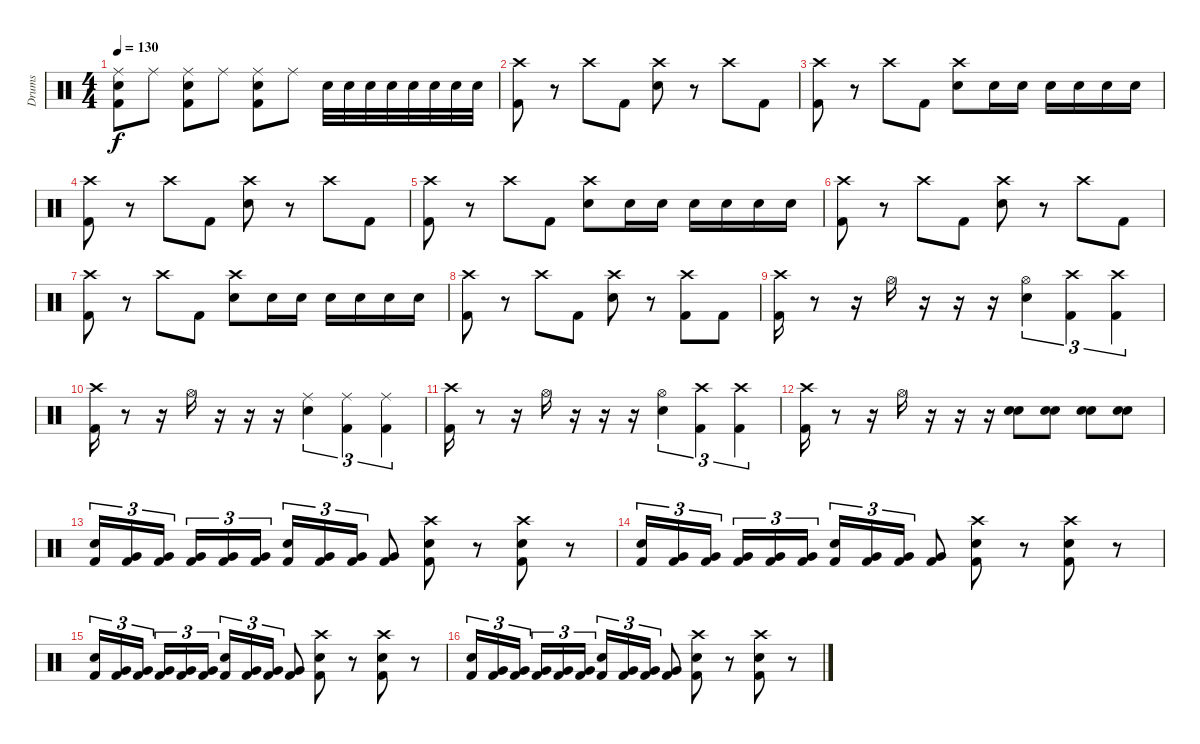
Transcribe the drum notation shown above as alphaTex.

\track ("Drums" "Drums") {instrument percussion}
\staff {score}
\articulation defaults
\ts (4 4)
\tempo 130
\clef neutral
\ks c
("Ride (middle)" "Electric Snare (hit)" "Kick (hit) 2").8{dy f} "Ride (middle)".8 ("Ride (middle)" "Electric Snare (hit)" "Kick (hit) 2").8 "Ride (middle)".8 ("Ride (middle)" "Electric Snare (hit)" "Kick (hit) 2").8 "Ride (middle)".8 "Electric Snare (hit)".32 "Electric Snare (hit)".32 "Electric Snare (hit)".32 "Electric Snare (hit)".32 "Electric Snare (hit)".32 "Electric Snare (hit)".32 "Electric Snare (hit)".32 "Electric Snare (hit)".32 |
("Crash high (hit)" "Kick (hit) 2").8 r.8 "Crash high (hit)".8 "Kick (hit) 2".8 ("Crash high (hit)" "Electric Snare (hit)").8 r.8 "Crash high (hit)".8 "Kick (hit) 2".8 |
("Crash high (hit)" "Kick (hit) 2").8 r.8 "Crash high (hit)".8 "Kick (hit) 2".8 ("Crash high (hit)" "Electric Snare (hit)").8 "Electric Snare (hit)".16 "Electric Snare (hit)".16 "Electric Snare (hit)".16 "Electric Snare (hit)".16 "Electric Snare (hit)".16 "Electric Snare (hit)".16 |
("Crash high (hit)" "Kick (hit) 2").8 r.8 "Crash high (hit)".8 "Kick (hit) 2".8 ("Crash high (hit)" "Electric Snare (hit)").8 r.8 "Crash high (hit)".8 "Kick (hit) 2".8 |
("Crash high (hit)" "Kick (hit) 2").8 r.8 "Crash high (hit)".8 "Kick (hit) 2".8 ("Crash high (hit)" "Electric Snare (hit)").8 "Electric Snare (hit)".16 "Electric Snare (hit)".16 "Electric Snare (hit)".16 "Electric Snare (hit)".16 "Electric Snare (hit)".16 "Electric Snare (hit)".16 |
("Crash high (hit)" "Kick (hit) 2").8 r.8 "Crash high (hit)".8 "Kick (hit) 2".8 ("Crash high (hit)" "Electric Snare (hit)").8 r.8 "Crash high (hit)".8 "Kick (hit) 2".8 |
("Crash high (hit)" "Kick (hit) 2").8 r.8 "Crash high (hit)".8 "Kick (hit) 2".8 ("Crash high (hit)" "Electric Snare (hit)").8 "Electric Snare (hit)".16 "Electric Snare (hit)".16 "Electric Snare (hit)".16 "Electric Snare (hit)".16 "Electric Snare (hit)".16 "Electric Snare (hit)".16 |
("Crash high (hit)" "Kick (hit) 2").8 r.8 "Crash high (hit)".8 "Kick (hit) 2".8 ("Crash high (hit)" "Electric Snare (hit)").8 r.8 ("Crash high (hit)" "Kick (hit) 2").8 "Kick (hit) 2".8 |
("Crash high (hit)" "Kick (hit) 2").16 r.8 r.16 "Hi-Hat (open)".16 r.16 r.16 r.16 ("Hi-Hat (open)" "Electric Snare (hit)").4{tu (3 2)} ("Crash high (hit)" "Kick (hit) 2").4{tu (3 2)} ("Crash high (hit)" "Kick (hit) 2").4{tu (3 2)} |
("Crash high (hit)" "Kick (hit) 2").16 r.8 r.16 "Hi-Hat (open)".16 r.16 r.16 r.16 ("Ride (middle)" "Electric Snare (hit)").4{tu (3 2)} ("Ride (middle)" "Kick (hit) 2").4{tu (3 2)} ("Ride (middle)" "Kick (hit) 2").4{tu (3 2)} |
("Crash high (hit)" "Kick (hit) 2").16 r.8 r.16 "Hi-Hat (open)".16 r.16 r.16 r.16 ("Hi-Hat (open)" "Electric Snare (hit)").4{tu (3 2)} ("Crash high (hit)" "Kick (hit) 2").4{tu (3 2)} ("Crash high (hit)" "Kick (hit) 2").4{tu (3 2)} |
("Crash high (hit)" "Kick (hit) 2").16 r.8 r.16 "Hi-Hat (open)".16 r.16 r.16 r.16 ("Snare (hit) 2" "Electric Snare (hit)").8 ("Snare (hit) 2" "Electric Snare (hit)").8 ("Snare (hit) 2" "Electric Snare (hit)").8 ("Snare (hit) 2" "Electric Snare (hit)").8 |
("Electric Snare (hit)" "Kick (hit) 2").16{tu (3 2)} ("Very Low Tom (hit)" "Kick (hit) 2").16{tu (3 2)} ("Very Low Tom (hit)" "Kick (hit) 2").16{tu (3 2)} ("Very Low Tom (hit)" "Kick (hit) 2").16{tu (3 2)} ("Very Low Tom (hit)" "Kick (hit) 2").16{tu (3 2)} ("Very Low Tom (hit)" "Kick (hit) 2").16{tu (3 2)} ("Electric Snare (hit)" "Kick (hit) 2").16{tu (3 2)} ("Very Low Tom (hit)" "Kick (hit) 2").16{tu (3 2)} ("Very Low Tom (hit)" "Kick (hit) 2").16{tu (3 2)} ("Very Low Tom (hit)" "Kick (hit) 2").8 ("Crash high (hit)" "Electric Snare (hit)" "Kick (hit) 2").8 r.8 ("Crash high (hit)" "Electric Snare (hit)" "Kick (hit) 2").8 r.8 |
("Electric Snare (hit)" "Kick (hit) 2").16{tu (3 2)} ("Very Low Tom (hit)" "Kick (hit) 2").16{tu (3 2)} ("Very Low Tom (hit)" "Kick (hit) 2").16{tu (3 2)} ("Very Low Tom (hit)" "Kick (hit) 2").16{tu (3 2)} ("Very Low Tom (hit)" "Kick (hit) 2").16{tu (3 2)} ("Very Low Tom (hit)" "Kick (hit) 2").16{tu (3 2)} ("Electric Snare (hit)" "Kick (hit) 2").16{tu (3 2)} ("Very Low Tom (hit)" "Kick (hit) 2").16{tu (3 2)} ("Very Low Tom (hit)" "Kick (hit) 2").16{tu (3 2)} ("Very Low Tom (hit)" "Kick (hit) 2").8 ("Crash high (hit)" "Electric Snare (hit)" "Kick (hit) 2").8 r.8 ("Crash high (hit)" "Electric Snare (hit)" "Kick (hit) 2").8 r.8 |
("Electric Snare (hit)" "Kick (hit) 2").16{tu (3 2)} ("Very Low Tom (hit)" "Kick (hit) 2").16{tu (3 2)} ("Very Low Tom (hit)" "Kick (hit) 2").16{tu (3 2)} ("Very Low Tom (hit)" "Kick (hit) 2").16{tu (3 2)} ("Very Low Tom (hit)" "Kick (hit) 2").16{tu (3 2)} ("Very Low Tom (hit)" "Kick (hit) 2").16{tu (3 2)} ("Electric Snare (hit)" "Kick (hit) 2").16{tu (3 2)} ("Very Low Tom (hit)" "Kick (hit) 2").16{tu (3 2)} ("Very Low Tom (hit)" "Kick (hit) 2").16{tu (3 2)} ("Very Low Tom (hit)" "Kick (hit) 2").8 ("Crash high (hit)" "Electric Snare (hit)" "Kick (hit) 2").8 r.8 ("Crash high (hit)" "Electric Snare (hit)" "Kick (hit) 2").8 r.8 |
("Electric Snare (hit)" "Kick (hit) 2").16{tu (3 2)} ("Very Low Tom (hit)" "Kick (hit) 2").16{tu (3 2)} ("Very Low Tom (hit)" "Kick (hit) 2").16{tu (3 2)} ("Very Low Tom (hit)" "Kick (hit) 2").16{tu (3 2)} ("Very Low Tom (hit)" "Kick (hit) 2").16{tu (3 2)} ("Very Low Tom (hit)" "Kick (hit) 2").16{tu (3 2)} ("Electric Snare (hit)" "Kick (hit) 2").16{tu (3 2)} ("Very Low Tom (hit)" "Kick (hit) 2").16{tu (3 2)} ("Very Low Tom (hit)" "Kick (hit) 2").16{tu (3 2)} ("Very Low Tom (hit)" "Kick (hit) 2").8 ("Crash high (hit)" "Electric Snare (hit)" "Kick (hit) 2").8 r.8 ("Crash high (hit)" "Electric Snare (hit)" "Kick (hit) 2").8 r.8
